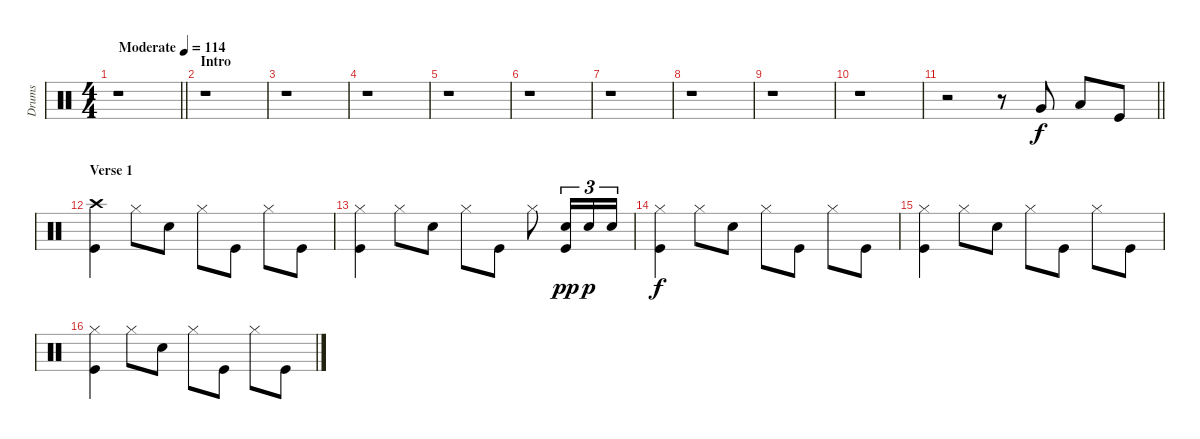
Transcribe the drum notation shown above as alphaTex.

\track ("Drums" "Drums") {instrument percussion}
\staff {score}
\articulation defaults
\ts (4 4)
\tempo (114 "Moderate")
\clef neutral
\barLineRight lightlight
\ks c
r.1{dy f} |
\section ("" "Intro")
r.1 |
r.1 |
r.1 |
r.1 |
r.1 |
r.1 |
r.1 |
r.1 |
r.1 |
\barLineRight lightlight
r.2 r.8 "Very Low Tom (hit)".8 "Low Floor Tom (hit)".8 "Kick (hit)".8 |
\section ("" "Verse 1")
("Crash high (hit)" "Kick (hit)").4 "Hi-Hat (closed)".8 "Electric Snare (hit)".8 "Hi-Hat (closed)".8 "Kick (hit)".8 "Hi-Hat (closed)".8 "Kick (hit)".8 |
("Hi-Hat (closed)" "Kick (hit)").4 "Hi-Hat (closed)".8 "Electric Snare (hit)".8 "Hi-Hat (closed)".8 "Kick (hit)".8 "Hi-Hat (closed)".8 ("Electric Snare (hit)" "Kick (hit)").16{tu (3 2) dy pp} "Electric Snare (hit)".16{tu (3 2) dy p} "Electric Snare (hit)".16{tu (3 2)} |
("Hi-Hat (closed)" "Kick (hit)").4{dy f} "Hi-Hat (closed)".8 "Electric Snare (hit)".8 "Hi-Hat (closed)".8 "Kick (hit)".8 "Hi-Hat (closed)".8 "Kick (hit)".8 |
("Hi-Hat (closed)" "Kick (hit)").4 "Hi-Hat (closed)".8 "Electric Snare (hit)".8 "Hi-Hat (closed)".8 "Kick (hit)".8 "Hi-Hat (closed)".8 "Kick (hit)".8 |
("Hi-Hat (closed)" "Kick (hit)").4 "Hi-Hat (closed)".8 "Electric Snare (hit)".8 "Hi-Hat (closed)".8 "Kick (hit)".8 "Hi-Hat (closed)".8 "Kick (hit)".8
